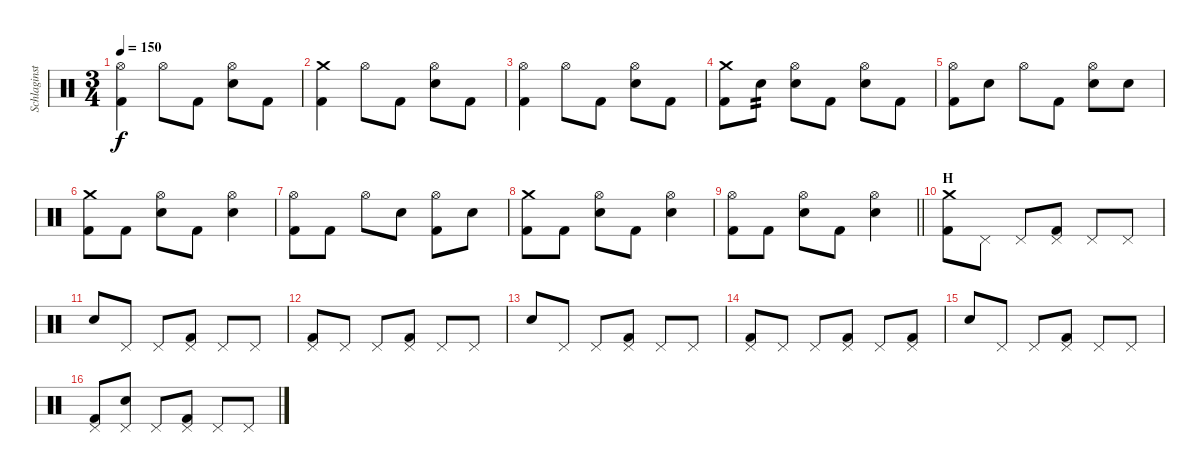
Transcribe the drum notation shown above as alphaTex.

\track ("Schlaginstrumente - Auswahl" "Schlaginst") {instrument percussion}
\staff {score}
\articulation defaults
\ts (3 4)
\tempo 150
\clef neutral
\ks c
("Hi-Hat (open)" "Kick (hit) 2").4{dy f} "Hi-Hat (open)".8 "Kick (hit) 2".8 ("Hi-Hat (open)" "Electric Snare (hit)").8 "Kick (hit) 2".8 |
("Crash medium (hit)" "Kick (hit) 2").4 "Hi-Hat (open)".8 "Kick (hit) 2".8 ("Hi-Hat (open)" "Electric Snare (hit)").8 "Kick (hit) 2".8 |
("Hi-Hat (open)" "Kick (hit) 2").4 "Hi-Hat (open)".8 "Kick (hit) 2".8 ("Hi-Hat (open)" "Electric Snare (hit)").8 "Kick (hit) 2".8 |
("Crash medium (hit)" "Kick (hit) 2").8 "Electric Snare (hit)".8{tp 2} ("Hi-Hat (open)" "Electric Snare (hit)").8 "Kick (hit) 2".8 ("Hi-Hat (open)" "Electric Snare (hit)").8 "Kick (hit) 2".8 |
("Hi-Hat (open)" "Kick (hit) 2").8 "Electric Snare (hit)".8 "Hi-Hat (open)".8 "Kick (hit) 2".8 ("Hi-Hat (open)" "Electric Snare (hit)").8 "Electric Snare (hit)".8 |
("Crash medium (hit)" "Kick (hit) 2").8 "Kick (hit) 2".8 ("Hi-Hat (open)" "Electric Snare (hit)").8 "Kick (hit) 2".8 ("Hi-Hat (open)" "Electric Snare (hit)").4 |
("Hi-Hat (open)" "Kick (hit) 2").8 "Kick (hit) 2".8 "Hi-Hat (open)".8 "Electric Snare (hit)".8 ("Hi-Hat (open)" "Kick (hit) 2").8 "Electric Snare (hit)".8 |
("Crash medium (hit)" "Kick (hit) 2").8 "Kick (hit) 2".8 ("Hi-Hat (open)" "Electric Snare (hit)").8 "Kick (hit) 2".8 ("Hi-Hat (open)" "Electric Snare (hit)").4 |
\barLineRight lightlight
("Hi-Hat (open)" "Kick (hit) 2").8 "Kick (hit) 2".8 ("Hi-Hat (open)" "Electric Snare (hit)").8 "Kick (hit) 2".8 ("Hi-Hat (open)" "Electric Snare (hit)").4 |
\section ("" "H")
("Crash medium (hit)" "Kick (hit) 2").8 "Pedal Hi-Hat (hit)".8 "Pedal Hi-Hat (hit)".8 ("Pedal Hi-Hat (hit)" "Kick (hit) 2").8 "Pedal Hi-Hat (hit)".8 "Pedal Hi-Hat (hit)".8 |
"Electric Snare (hit)".8 "Pedal Hi-Hat (hit)".8 "Pedal Hi-Hat (hit)".8 ("Pedal Hi-Hat (hit)" "Kick (hit) 2").8 "Pedal Hi-Hat (hit)".8 "Pedal Hi-Hat (hit)".8 |
("Pedal Hi-Hat (hit)" "Kick (hit) 2").8 "Pedal Hi-Hat (hit)".8 "Pedal Hi-Hat (hit)".8 ("Pedal Hi-Hat (hit)" "Kick (hit) 2").8 "Pedal Hi-Hat (hit)".8 "Pedal Hi-Hat (hit)".8 |
"Electric Snare (hit)".8 "Pedal Hi-Hat (hit)".8 "Pedal Hi-Hat (hit)".8 ("Pedal Hi-Hat (hit)" "Kick (hit) 2").8 "Pedal Hi-Hat (hit)".8 "Pedal Hi-Hat (hit)".8 |
("Pedal Hi-Hat (hit)" "Kick (hit) 2").8 "Pedal Hi-Hat (hit)".8 "Pedal Hi-Hat (hit)".8 ("Pedal Hi-Hat (hit)" "Kick (hit) 2").8 "Pedal Hi-Hat (hit)".8 ("Pedal Hi-Hat (hit)" "Kick (hit) 2").8 |
"Electric Snare (hit)".8 "Pedal Hi-Hat (hit)".8 "Pedal Hi-Hat (hit)".8 ("Pedal Hi-Hat (hit)" "Kick (hit) 2").8 "Pedal Hi-Hat (hit)".8 "Pedal Hi-Hat (hit)".8 |
("Pedal Hi-Hat (hit)" "Kick (hit) 2").8 ("Pedal Hi-Hat (hit)" "Electric Snare (hit)").8 "Pedal Hi-Hat (hit)".8 ("Pedal Hi-Hat (hit)" "Kick (hit) 2").8 "Pedal Hi-Hat (hit)".8 "Pedal Hi-Hat (hit)".8
